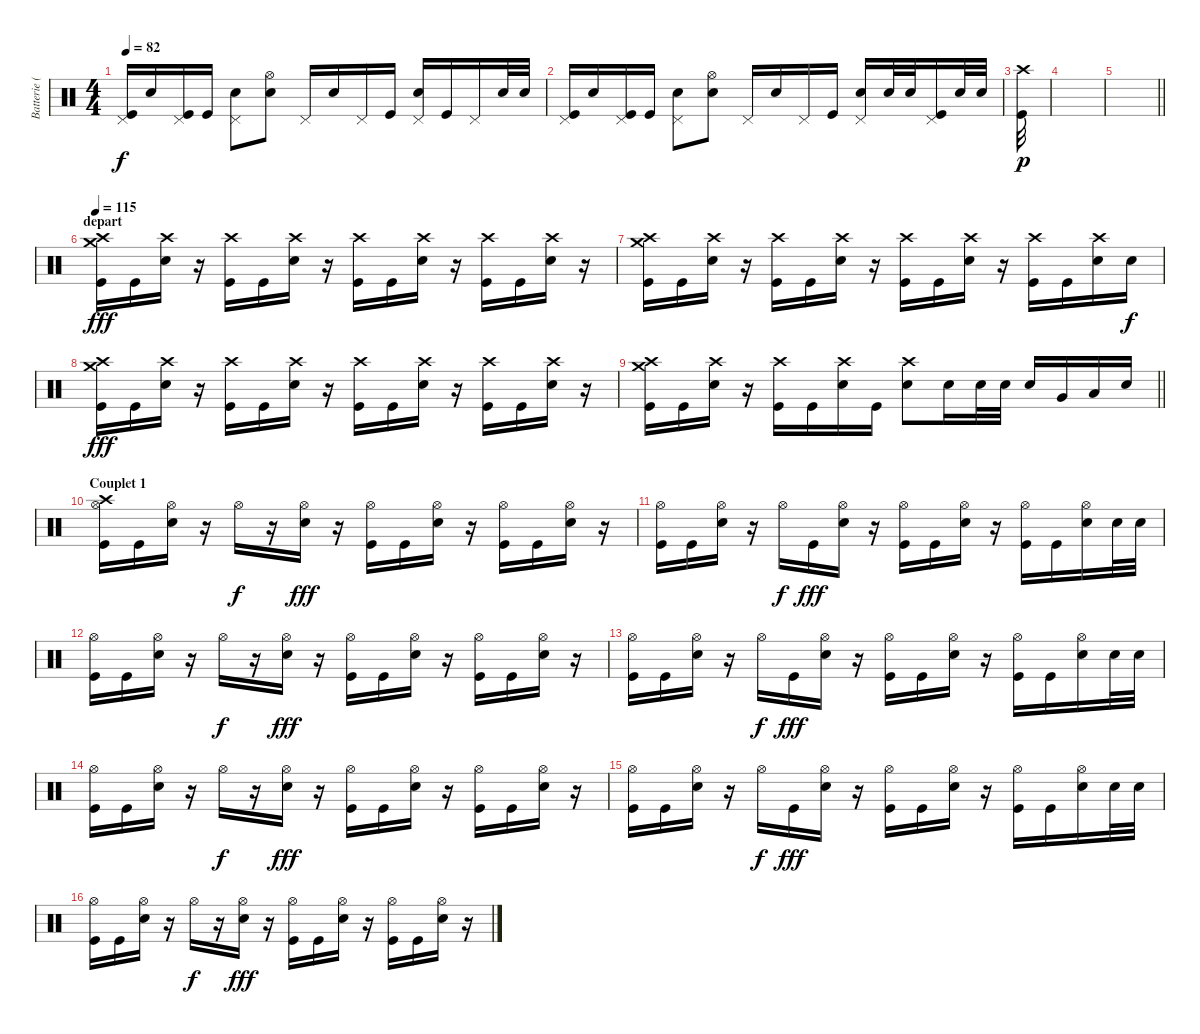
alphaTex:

\track ("Batterie (Steve)" "Batterie (") {instrument percussion}
\staff {score}
\articulation defaults
\ts (4 4)
\tempo 82
\clef neutral
\ks c
("Pedal Hi-Hat (hit)" "Kick (hit)").16{dy f} "Electric Snare (hit)".16 ("Pedal Hi-Hat (hit)" "Kick (hit)").16 "Kick (hit)".16 ("Pedal Hi-Hat (hit)" "Electric Snare (hit)").8 ("Hi-Hat (open)" "Electric Snare (hit)").8 "Pedal Hi-Hat (hit)".16 "Electric Snare (hit)".16 "Pedal Hi-Hat (hit)".16 "Kick (hit)".16 ("Pedal Hi-Hat (hit)" "Electric Snare (hit)").16 "Kick (hit)".16 "Pedal Hi-Hat (hit)".16 "Electric Snare (hit)".32 "Electric Snare (hit)".32 |
("Pedal Hi-Hat (hit)" "Kick (hit)").16 "Electric Snare (hit)".16 ("Pedal Hi-Hat (hit)" "Kick (hit)").16 "Kick (hit)".16 ("Pedal Hi-Hat (hit)" "Electric Snare (hit)").8 ("Hi-Hat (open)" "Electric Snare (hit)").8 "Pedal Hi-Hat (hit)".16 "Electric Snare (hit)".16 "Pedal Hi-Hat (hit)".16 "Kick (hit)".16 ("Pedal Hi-Hat (hit)" "Electric Snare (hit)").16 "Electric Snare (hit)".32 "Electric Snare (hit)".32 ("Pedal Hi-Hat (hit)" "Kick (hit)").16 "Electric Snare (hit)".32 "Electric Snare (hit)".32 |
("Crash high (hit)" "Kick (hit)").32{dy p} |
|
\barLineRight lightlight
|
\section ("" "depart")
\tempo 120
\tempo 115
("Crash medium (hit)" "Crash high (hit)" "Kick (hit)").16{dy fff} "Kick (hit)".16 ("Crash high (hit)" "Electric Snare (hit)").16 r.16 ("Crash high (hit)" "Kick (hit)").16 "Kick (hit)".16 ("Crash high (hit)" "Electric Snare (hit)").16 r.16 ("Crash high (hit)" "Kick (hit)").16 "Kick (hit)".16 ("Crash high (hit)" "Electric Snare (hit)").16 r.16 ("Crash high (hit)" "Kick (hit)").16 "Kick (hit)".16 ("Crash high (hit)" "Electric Snare (hit)").16 r.16 |
("Crash medium (hit)" "Crash high (hit)" "Kick (hit)").16 "Kick (hit)".16 ("Crash high (hit)" "Electric Snare (hit)").16 r.16 ("Crash high (hit)" "Kick (hit)").16 "Kick (hit)".16 ("Crash high (hit)" "Electric Snare (hit)").16 r.16 ("Crash high (hit)" "Kick (hit)").16 "Kick (hit)".16 ("Crash high (hit)" "Electric Snare (hit)").16 r.16 ("Crash high (hit)" "Kick (hit)").16 "Kick (hit)".16 ("Crash high (hit)" "Electric Snare (hit)").16 "Electric Snare (hit)".16{dy f} |
("Crash medium (hit)" "Crash high (hit)" "Kick (hit)").16{dy fff} "Kick (hit)".16 ("Crash high (hit)" "Electric Snare (hit)").16 r.16 ("Crash high (hit)" "Kick (hit)").16 "Kick (hit)".16 ("Crash high (hit)" "Electric Snare (hit)").16 r.16 ("Crash high (hit)" "Kick (hit)").16 "Kick (hit)".16 ("Crash high (hit)" "Electric Snare (hit)").16 r.16 ("Crash high (hit)" "Kick (hit)").16 "Kick (hit)".16 ("Crash high (hit)" "Electric Snare (hit)").16 r.16 |
\barLineRight lightlight
("Crash medium (hit)" "Crash high (hit)" "Kick (hit)").16 "Kick (hit)".16 ("Crash high (hit)" "Electric Snare (hit)").16 r.16 ("Crash high (hit)" "Kick (hit)").16 "Kick (hit)".16 ("Crash high (hit)" "Electric Snare (hit)").16 "Kick (hit)".16 ("Crash high (hit)" "Electric Snare (hit)").8 "Electric Snare (hit)".16 "Electric Snare (hit)".32 "Electric Snare (hit)".32 "Electric Snare (hit)".16 "Very Low Tom (hit)".16 "Low Floor Tom (hit)".16 "Electric Snare (hit)".16 |
\section ("" "Couplet 1")
("Hi-Hat (open)" "Crash high (hit)" "Kick (hit)").16 "Kick (hit)".16 ("Hi-Hat (open)" "Electric Snare (hit)").16 r.16 "Hi-Hat (open)".16{dy f} r.16 ("Hi-Hat (open)" "Electric Snare (hit)").16{dy fff} r.16 ("Hi-Hat (open)" "Kick (hit)").16 "Kick (hit)".16 ("Hi-Hat (open)" "Electric Snare (hit)").16 r.16 ("Hi-Hat (open)" "Kick (hit)").16 "Kick (hit)".16 ("Hi-Hat (open)" "Electric Snare (hit)").16 r.16 |
("Hi-Hat (open)" "Kick (hit)").16 "Kick (hit)".16 ("Hi-Hat (open)" "Electric Snare (hit)").16 r.16 "Hi-Hat (open)".16{dy f} "Kick (hit)".16{dy fff} ("Hi-Hat (open)" "Electric Snare (hit)").16 r.16 ("Hi-Hat (open)" "Kick (hit)").16 "Kick (hit)".16 ("Hi-Hat (open)" "Electric Snare (hit)").16 r.16 ("Hi-Hat (open)" "Kick (hit)").16 "Kick (hit)".16 ("Hi-Hat (open)" "Electric Snare (hit)").16 "Electric Snare (hit)".32 "Electric Snare (hit)".32 |
("Hi-Hat (open)" "Kick (hit)").16 "Kick (hit)".16 ("Hi-Hat (open)" "Electric Snare (hit)").16 r.16 "Hi-Hat (open)".16{dy f} r.16 ("Hi-Hat (open)" "Electric Snare (hit)").16{dy fff} r.16 ("Hi-Hat (open)" "Kick (hit)").16 "Kick (hit)".16 ("Hi-Hat (open)" "Electric Snare (hit)").16 r.16 ("Hi-Hat (open)" "Kick (hit)").16 "Kick (hit)".16 ("Hi-Hat (open)" "Electric Snare (hit)").16 r.16 |
("Hi-Hat (open)" "Kick (hit)").16 "Kick (hit)".16 ("Hi-Hat (open)" "Electric Snare (hit)").16 r.16 "Hi-Hat (open)".16{dy f} "Kick (hit)".16{dy fff} ("Hi-Hat (open)" "Electric Snare (hit)").16 r.16 ("Hi-Hat (open)" "Kick (hit)").16 "Kick (hit)".16 ("Hi-Hat (open)" "Electric Snare (hit)").16 r.16 ("Hi-Hat (open)" "Kick (hit)").16 "Kick (hit)".16 ("Hi-Hat (open)" "Electric Snare (hit)").16 "Electric Snare (hit)".32 "Electric Snare (hit)".32 |
("Hi-Hat (open)" "Kick (hit)").16 "Kick (hit)".16 ("Hi-Hat (open)" "Electric Snare (hit)").16 r.16 "Hi-Hat (open)".16{dy f} r.16 ("Hi-Hat (open)" "Electric Snare (hit)").16{dy fff} r.16 ("Hi-Hat (open)" "Kick (hit)").16 "Kick (hit)".16 ("Hi-Hat (open)" "Electric Snare (hit)").16 r.16 ("Hi-Hat (open)" "Kick (hit)").16 "Kick (hit)".16 ("Hi-Hat (open)" "Electric Snare (hit)").16 r.16 |
("Hi-Hat (open)" "Kick (hit)").16 "Kick (hit)".16 ("Hi-Hat (open)" "Electric Snare (hit)").16 r.16 "Hi-Hat (open)".16{dy f} "Kick (hit)".16{dy fff} ("Hi-Hat (open)" "Electric Snare (hit)").16 r.16 ("Hi-Hat (open)" "Kick (hit)").16 "Kick (hit)".16 ("Hi-Hat (open)" "Electric Snare (hit)").16 r.16 ("Hi-Hat (open)" "Kick (hit)").16 "Kick (hit)".16 ("Hi-Hat (open)" "Electric Snare (hit)").16 "Electric Snare (hit)".32 "Electric Snare (hit)".32 |
("Hi-Hat (open)" "Kick (hit)").16 "Kick (hit)".16 ("Hi-Hat (open)" "Electric Snare (hit)").16 r.16 "Hi-Hat (open)".16{dy f} r.16 ("Hi-Hat (open)" "Electric Snare (hit)").16{dy fff} r.16 ("Hi-Hat (open)" "Kick (hit)").16 "Kick (hit)".16 ("Hi-Hat (open)" "Electric Snare (hit)").16 r.16 ("Hi-Hat (open)" "Kick (hit)").16 "Kick (hit)".16 ("Hi-Hat (open)" "Electric Snare (hit)").16 r.16
